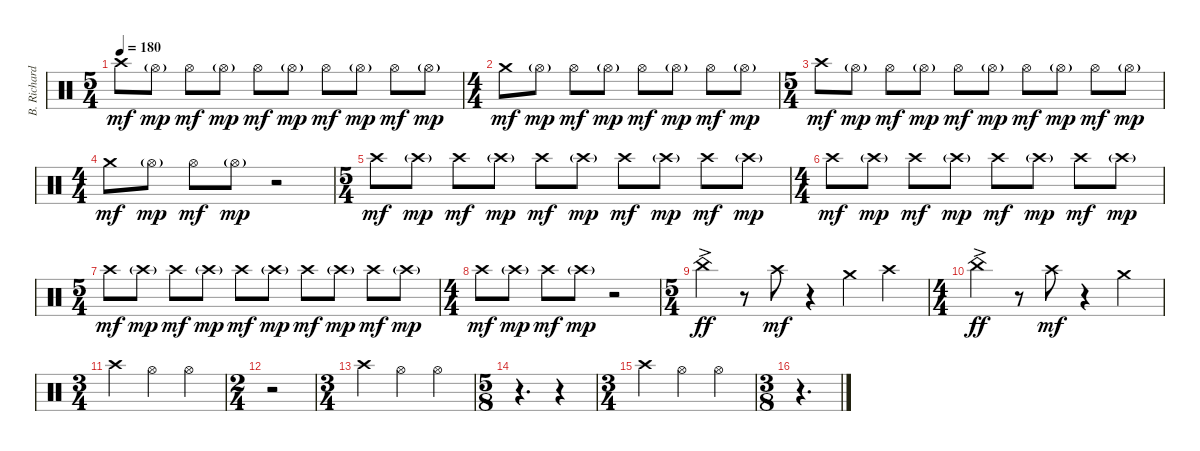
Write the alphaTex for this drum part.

\track ("B. Richardson Drums" "B. Richard") {instrument percussion}
\staff {score}
\articulation defaults
\ts (5 4)
\tempo 180
\clef neutral
\ks c "Crash high (hit)".8{dy mf} "Hi-Hat (open)"{g}.8{dy mp} "Hi-Hat (open)".8{dy mf} "Hi-Hat (open)"{g}.8{dy mp} "Hi-Hat (open)".8{dy mf} "Hi-Hat (open)"{g}.8{dy mp} "Hi-Hat (open)".8{dy mf} "Hi-Hat (open)"{g}.8{dy mp} "Hi-Hat (open)".8{dy mf} "Hi-Hat (open)"{g}.8{dy mp}
|
\ts (4 4)
"Crash medium (hit)".8{dy mf} "Hi-Hat (open)"{g}.8{dy mp} "Hi-Hat (open)".8{dy mf} "Hi-Hat (open)"{g}.8{dy mp} "Hi-Hat (open)".8{dy mf} "Hi-Hat (open)"{g}.8{dy mp} "Hi-Hat (open)".8{dy mf} "Hi-Hat (open)"{g}.8{dy mp} |
\ts (5 4)
"Crash high (hit)".8{dy mf} "Hi-Hat (open)"{g}.8{dy mp} "Hi-Hat (open)".8{dy mf} "Hi-Hat (open)"{g}.8{dy mp} "Hi-Hat (open)".8{dy mf} "Hi-Hat (open)"{g}.8{dy mp} "Hi-Hat (open)".8{dy mf} "Hi-Hat (open)"{g}.8{dy mp} "Hi-Hat (open)".8{dy mf} "Hi-Hat (open)"{g}.8{dy mp} |
\ts (4 4)
"Crash medium (hit)".8{dy mf} "Hi-Hat (open)"{g}.8{dy mp} "Hi-Hat (open)".8{dy mf} "Hi-Hat (open)"{g}.8{dy mp} r.2 |
\ts (5 4)
"Crash high (hit)".8{dy mf} "Crash high (hit)"{g}.8{dy mp} "Crash high (hit)".8{dy mf} "Crash high (hit)"{g}.8{dy mp} "Crash high (hit)".8{dy mf} "Crash high (hit)"{g}.8{dy mp} "Crash high (hit)".8{dy mf} "Crash high (hit)"{g}.8{dy mp} "Crash high (hit)".8{dy mf} "Crash high (hit)"{g}.8{dy mp} |
\ts (4 4)
"Crash high (hit)".8{dy mf} "Crash high (hit)"{g}.8{dy mp} "Crash high (hit)".8{dy mf} "Crash high (hit)"{g}.8{dy mp} "Crash high (hit)".8{dy mf} "Crash high (hit)"{g}.8{dy mp} "Crash high (hit)".8{dy mf} "Crash high (hit)"{g}.8{dy mp} |
\ts (5 4)
"Crash high (hit)".8{dy mf} "Crash high (hit)"{g}.8{dy mp} "Crash high (hit)".8{dy mf} "Crash high (hit)"{g}.8{dy mp} "Crash high (hit)".8{dy mf} "Crash high (hit)"{g}.8{dy mp} "Crash high (hit)".8{dy mf} "Crash high (hit)"{g}.8{dy mp} "Crash high (hit)".8{dy mf} "Crash high (hit)"{g}.8{dy mp} |
\ts (4 4)
"Crash high (hit)".8{dy mf} "Crash high (hit)"{g}.8{dy mp} "Crash high (hit)".8{dy mf} "Crash high (hit)"{g}.8{dy mp} r.2 |
\ts (5 4)
"China (hit)"{ac}.4{dy ff} r.8 "Crash high (hit)".8{dy mf} r.4 "Crash medium (hit)".4 "Crash high (hit)".4 |
\ts (4 4)
"China (hit)"{ac}.4{dy ff} r.8 "Crash high (hit)".8{dy mf} r.4 "Crash medium (hit)".4 |
\ts (3 4)
"Crash high (hit)".4 "Hi-Hat (open)".4 "Hi-Hat (open)".4 |
\ts (2 4)
r.2 |
\ts (3 4)
"Crash high (hit)".4 "Hi-Hat (open)".4 "Hi-Hat (open)".4 |
\ts (5 8)
r.4{d} r.4 |
\ts (3 4)
"Crash high (hit)".4 "Hi-Hat (open)".4 "Hi-Hat (open)".4 |
\ts (3 8)
r.4{d}
